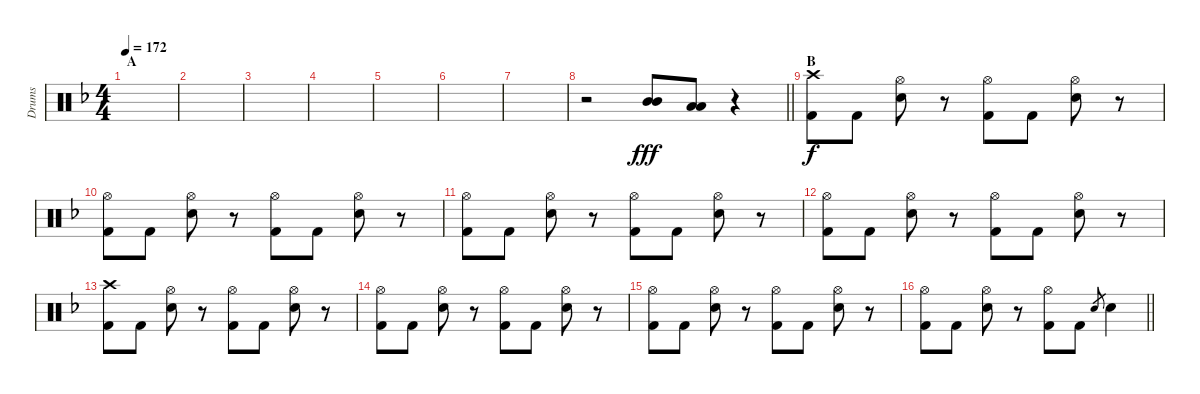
\track ("Drums" "Drums") {instrument percussion}
\staff {score}
\articulation defaults
\ts (4 4)
\section ("" "A")
\tempo 172
\clef neutral
\ks f
|
|
|
|
|
|
|
\barLineRight lightlight
r.2 ("Mid Tom (hit)" "Mid Tom (hit)").8{dy fff} ("Low Tom (hit)" "Low Tom (hit)").8 r.4 |
\section ("" "B")
("Crash high (hit)" "Kick (hit) 2").8{dy f} "Kick (hit) 2".8 ("Hi-Hat (open)" "Electric Snare (hit)").8 r.8 ("Hi-Hat (open)" "Kick (hit) 2").8 "Kick (hit) 2".8 ("Hi-Hat (open)" "Electric Snare (hit)").8 r.8 |
("Hi-Hat (open)" "Kick (hit) 2").8 "Kick (hit) 2".8 ("Hi-Hat (open)" "Electric Snare (hit)").8 r.8 ("Hi-Hat (open)" "Kick (hit) 2").8 "Kick (hit) 2".8 ("Hi-Hat (open)" "Electric Snare (hit)").8 r.8 |
("Hi-Hat (open)" "Kick (hit) 2").8 "Kick (hit) 2".8 ("Hi-Hat (open)" "Electric Snare (hit)").8 r.8 ("Hi-Hat (open)" "Kick (hit) 2").8 "Kick (hit) 2".8 ("Hi-Hat (open)" "Electric Snare (hit)").8 r.8 |
("Hi-Hat (open)" "Kick (hit) 2").8 "Kick (hit) 2".8 ("Hi-Hat (open)" "Electric Snare (hit)").8 r.8 ("Hi-Hat (open)" "Kick (hit) 2").8 "Kick (hit) 2".8 ("Hi-Hat (open)" "Electric Snare (hit)").8 r.8 |
("Crash high (hit)" "Kick (hit) 2").8 "Kick (hit) 2".8 ("Hi-Hat (open)" "Electric Snare (hit)").8 r.8 ("Hi-Hat (open)" "Kick (hit) 2").8 "Kick (hit) 2".8 ("Hi-Hat (open)" "Electric Snare (hit)").8 r.8 |
("Hi-Hat (open)" "Kick (hit) 2").8 "Kick (hit) 2".8 ("Hi-Hat (open)" "Electric Snare (hit)").8 r.8 ("Hi-Hat (open)" "Kick (hit) 2").8 "Kick (hit) 2".8 ("Hi-Hat (open)" "Electric Snare (hit)").8 r.8 |
("Hi-Hat (open)" "Kick (hit) 2").8 "Kick (hit) 2".8 ("Hi-Hat (open)" "Electric Snare (hit)").8 r.8 ("Hi-Hat (open)" "Kick (hit) 2").8 "Kick (hit) 2".8 ("Hi-Hat (open)" "Electric Snare (hit)").8 r.8 |
\barLineRight lightlight
("Hi-Hat (open)" "Kick (hit) 2").8 "Kick (hit) 2".8 ("Hi-Hat (open)" "Electric Snare (hit)").8 r.8 ("Hi-Hat (open)" "Kick (hit) 2").8 "Kick (hit) 2".8 "Electric Snare (hit)".8{gr} "Electric Snare (hit)".4
